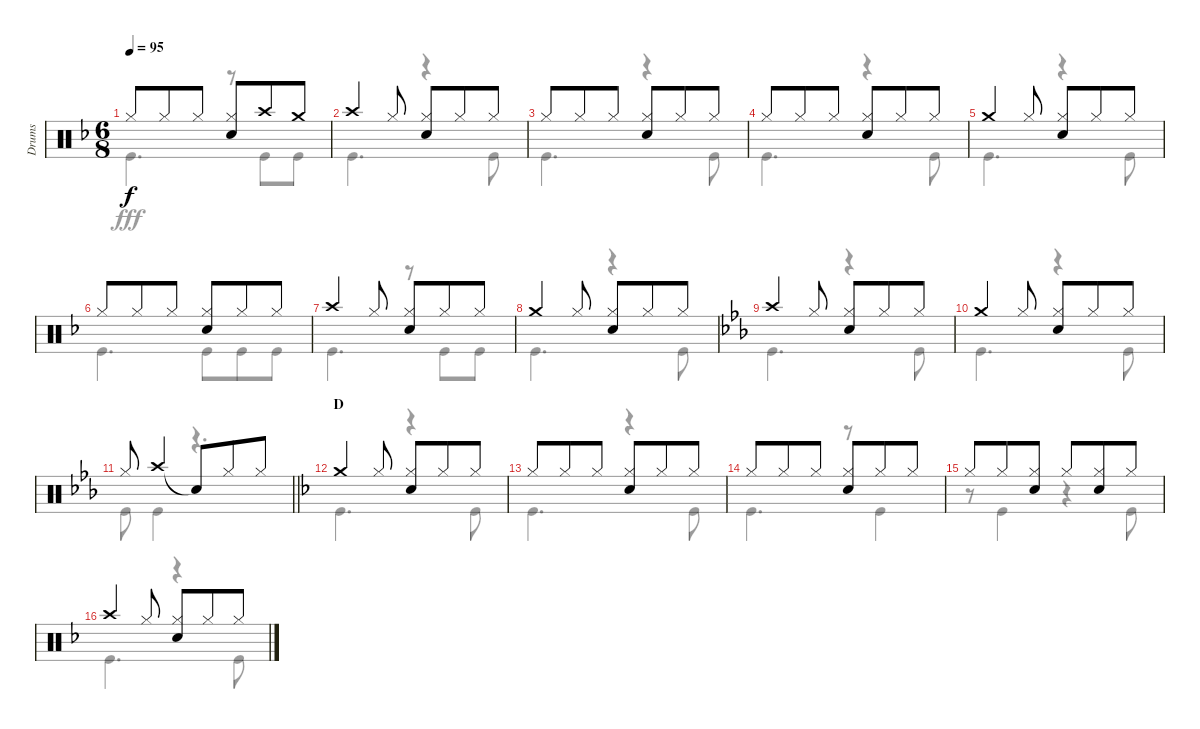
\track ("Drums" "Drums") {instrument percussion}
\staff {score}
\articulation defaults
\voice
\ts (6 8)
\tempo 95
\clef neutral
\ks f "Hi-Hat (closed)".8{dy f} "Hi-Hat (closed)".8 "Hi-Hat (closed)".8
("Hi-Hat (closed)" "Snare (hit) 2").8 "Crash high (hit)".8 "Crash medium (hit)".8 |
"Crash high (hit)".4 "Hi-Hat (closed)".8 ("Hi-Hat (closed)" "Snare (hit) 2").8 "Hi-Hat (closed)".8 "Hi-Hat (closed)".8 |
"Hi-Hat (closed)".8 "Hi-Hat (closed)".8 "Hi-Hat (closed)".8 ("Hi-Hat (closed)" "Snare (hit) 2").8 "Hi-Hat (closed)".8 "Hi-Hat (closed)".8 |
"Hi-Hat (closed)".8 "Hi-Hat (closed)".8 "Hi-Hat (closed)".8 ("Hi-Hat (closed)" "Snare (hit) 2").8 "Hi-Hat (closed)".8 "Hi-Hat (closed)".8 |
"Crash medium (hit)".4 "Hi-Hat (closed)".8 ("Hi-Hat (closed)" "Snare (hit) 2").8 "Hi-Hat (closed)".8 "Hi-Hat (closed)".8 |
"Hi-Hat (closed)".8 "Hi-Hat (closed)".8 "Hi-Hat (closed)".8 ("Hi-Hat (closed)" "Snare (hit) 2").8 "Hi-Hat (closed)".8 "Hi-Hat (closed)".8 |
"Crash high (hit)".4 "Hi-Hat (closed)".8 ("Hi-Hat (closed)" "Snare (hit) 2").8 "Hi-Hat (closed)".8 "Hi-Hat (closed)".8 |
"Crash medium (hit)".4 "Hi-Hat (closed)".8 ("Hi-Hat (closed)" "Snare (hit) 2").8 "Hi-Hat (closed)".8 "Hi-Hat (closed)".8 |
\ks eb "Crash high (hit)".4 "Hi-Hat (closed)".8
("Hi-Hat (closed)" "Snare (hit) 2").8 "Hi-Hat (closed)".8 "Hi-Hat (closed)".8 |
"Crash medium (hit)".4 "Hi-Hat (closed)".8 ("Hi-Hat (closed)" "Snare (hit) 2").8 "Hi-Hat (closed)".8 "Hi-Hat (closed)".8 |
\barLineRight lightlight "Hi-Hat (closed)".8 "Crash high (hit)".4 "Snare (hit)"{t}.8 "Hi-Hat (closed)".8 "Hi-Hat (closed)".8
|
\section ("" "D")
\ks f "Crash medium (hit)".4 "Hi-Hat (closed)".8
("Hi-Hat (closed)" "Snare (hit) 2").8 "Hi-Hat (closed)".8 "Hi-Hat (closed)".8 |
"Hi-Hat (closed)".8 "Hi-Hat (closed)".8 "Hi-Hat (closed)".8 ("Hi-Hat (closed)" "Snare (hit) 2").8 "Hi-Hat (closed)".8 "Hi-Hat (closed)".8 |
"Hi-Hat (closed)".8 "Hi-Hat (closed)".8 "Hi-Hat (closed)".8 ("Hi-Hat (closed)" "Snare (hit) 2").8 "Hi-Hat (closed)".8 "Hi-Hat (closed)".8 |
"Hi-Hat (closed)".8 "Hi-Hat (closed)".8 ("Hi-Hat (closed)" "Snare (hit) 2").8 "Hi-Hat (closed)".8 ("Hi-Hat (closed)" "Snare (hit) 2").8 "Hi-Hat (closed)".8 |
"Crash high (hit)".4 "Hi-Hat (closed)".8 ("Hi-Hat (closed)" "Snare (hit) 2").8 "Hi-Hat (closed)".8 "Hi-Hat (closed)".8
\voice
\clef neutral
\ottava regular
\simile none
\ks f "Kick (hit)".4{d dy fff}
r.8 "Kick (hit)".8 "Kick (hit)".8 |
"Kick (hit)".4{d} r.4 "Kick (hit)".8 |
"Kick (hit)".4{d} r.4 "Kick (hit)".8 |
"Kick (hit)".4{d} r.4 "Kick (hit)".8 |
"Kick (hit)".4{d} r.4 "Kick (hit)".8 |
"Kick (hit)".4{d} "Kick (hit)".8 "Kick (hit)".8 "Kick (hit)".8 |
"Kick (hit)".4{d} r.8 "Kick (hit)".8 "Kick (hit)".8 |
"Kick (hit)".4{d} r.4 "Kick (hit)".8 |
\ks eb "Kick (hit)".4{d}
r.4 "Kick (hit)".8 |
"Kick (hit)".4{d} r.4 "Kick (hit)".8 |
\barLineRight lightlight "Kick (hit)".8 "Kick (hit)".4
r.4{d} |
\ks f "Kick (hit)".4{d}
r.4 "Kick (hit)".8 |
"Kick (hit)".4{d} r.4 "Kick (hit)".8 |
"Kick (hit)".4{d} r.8 "Kick (hit)".4 |
r.8 "Kick (hit)".4 r.4 "Kick (hit)".8 |
"Kick (hit)".4{d} r.4 "Kick (hit)".8
